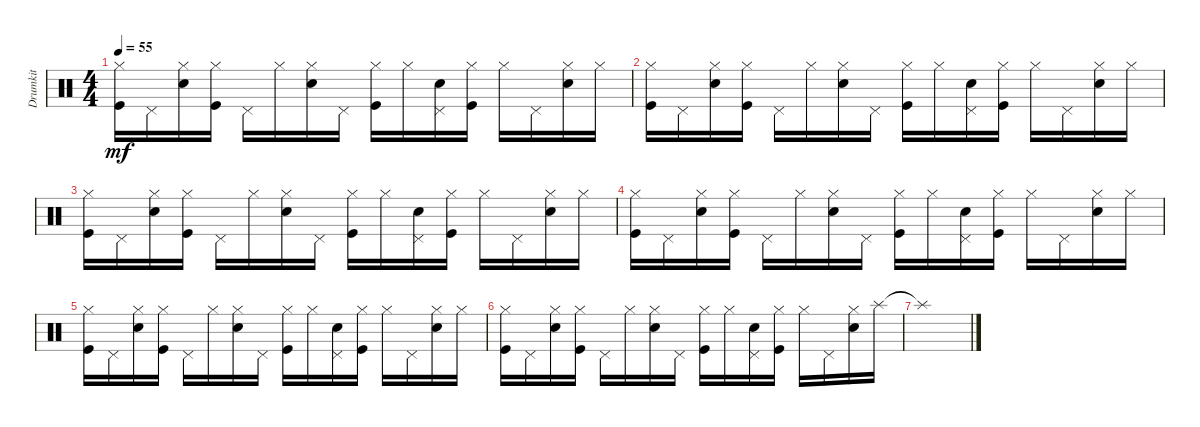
\track ("Drumkit" "Drumkit") {instrument percussion}
\staff {score}
\articulation defaults
\ts (4 4)
\tempo 55
\clef neutral
\ks c
("Kick (hit)" "Hi-Hat (closed)").16{dy mf} "Pedal Hi-Hat (hit)".16 ("Hi-Hat (closed)" "Snare (hit) 2").16 ("Kick (hit)" "Hi-Hat (closed)").16 "Pedal Hi-Hat (hit)".16 "Hi-Hat (closed)".16 ("Snare (hit) 2" "Hi-Hat (closed)").16 "Pedal Hi-Hat (hit)".16 ("Kick (hit)" "Hi-Hat (closed)").16 "Hi-Hat (closed)".16 ("Snare (hit) 2" "Pedal Hi-Hat (hit)").16 ("Kick (hit)" "Hi-Hat (closed)").16 "Hi-Hat (closed)".16 "Pedal Hi-Hat (hit)".16 ("Snare (hit) 2" "Hi-Hat (closed)").16 "Hi-Hat (closed)".16 |
("Kick (hit)" "Hi-Hat (closed)").16 "Pedal Hi-Hat (hit)".16 ("Hi-Hat (closed)" "Snare (hit) 2").16 ("Kick (hit)" "Hi-Hat (closed)").16 "Pedal Hi-Hat (hit)".16 "Hi-Hat (closed)".16 ("Snare (hit) 2" "Hi-Hat (closed)").16 "Pedal Hi-Hat (hit)".16 ("Kick (hit)" "Hi-Hat (closed)").16 "Hi-Hat (closed)".16 ("Snare (hit) 2" "Pedal Hi-Hat (hit)").16 ("Kick (hit)" "Hi-Hat (closed)").16 "Hi-Hat (closed)".16 "Pedal Hi-Hat (hit)".16 ("Snare (hit) 2" "Hi-Hat (closed)").16 "Hi-Hat (closed)".16 |
("Kick (hit)" "Hi-Hat (closed)").16 "Pedal Hi-Hat (hit)".16 ("Hi-Hat (closed)" "Snare (hit) 2").16 ("Kick (hit)" "Hi-Hat (closed)").16 "Pedal Hi-Hat (hit)".16 "Hi-Hat (closed)".16 ("Snare (hit) 2" "Hi-Hat (closed)").16 "Pedal Hi-Hat (hit)".16 ("Kick (hit)" "Hi-Hat (closed)").16 "Hi-Hat (closed)".16 ("Snare (hit) 2" "Pedal Hi-Hat (hit)").16 ("Kick (hit)" "Hi-Hat (closed)").16 "Hi-Hat (closed)".16 "Pedal Hi-Hat (hit)".16 ("Snare (hit) 2" "Hi-Hat (closed)").16 "Hi-Hat (closed)".16 |
("Kick (hit)" "Hi-Hat (closed)").16 "Pedal Hi-Hat (hit)".16 ("Hi-Hat (closed)" "Snare (hit) 2").16 ("Kick (hit)" "Hi-Hat (closed)").16 "Pedal Hi-Hat (hit)".16 "Hi-Hat (closed)".16 ("Snare (hit) 2" "Hi-Hat (closed)").16 "Pedal Hi-Hat (hit)".16 ("Kick (hit)" "Hi-Hat (closed)").16 "Hi-Hat (closed)".16 ("Snare (hit) 2" "Pedal Hi-Hat (hit)").16 ("Kick (hit)" "Hi-Hat (closed)").16 "Hi-Hat (closed)".16 "Pedal Hi-Hat (hit)".16 ("Snare (hit) 2" "Hi-Hat (closed)").16 "Hi-Hat (closed)".16 |
("Kick (hit)" "Hi-Hat (closed)").16 "Pedal Hi-Hat (hit)".16 ("Hi-Hat (closed)" "Snare (hit) 2").16 ("Kick (hit)" "Hi-Hat (closed)").16 "Pedal Hi-Hat (hit)".16 "Hi-Hat (closed)".16 ("Snare (hit) 2" "Hi-Hat (closed)").16 "Pedal Hi-Hat (hit)".16 ("Kick (hit)" "Hi-Hat (closed)").16 "Hi-Hat (closed)".16 ("Snare (hit) 2" "Pedal Hi-Hat (hit)").16 ("Kick (hit)" "Hi-Hat (closed)").16 "Hi-Hat (closed)".16 "Pedal Hi-Hat (hit)".16 ("Snare (hit) 2" "Hi-Hat (closed)").16 "Hi-Hat (closed)".16 |
("Kick (hit)" "Hi-Hat (closed)").16 "Pedal Hi-Hat (hit)".16 ("Hi-Hat (closed)" "Snare (hit) 2").16 ("Kick (hit)" "Hi-Hat (closed)").16 "Pedal Hi-Hat (hit)".16 "Hi-Hat (closed)".16 ("Snare (hit) 2" "Hi-Hat (closed)").16 "Pedal Hi-Hat (hit)".16 ("Kick (hit)" "Hi-Hat (closed)").16 "Hi-Hat (closed)".16 ("Snare (hit) 2" "Pedal Hi-Hat (hit)").16 ("Kick (hit)" "Hi-Hat (closed)").16 "Hi-Hat (closed)".16 "Pedal Hi-Hat (hit)".16 ("Snare (hit) 2" "Hi-Hat (closed)").16 "Splash (hit)".16 |
"Splash (hit)"{t}.1
